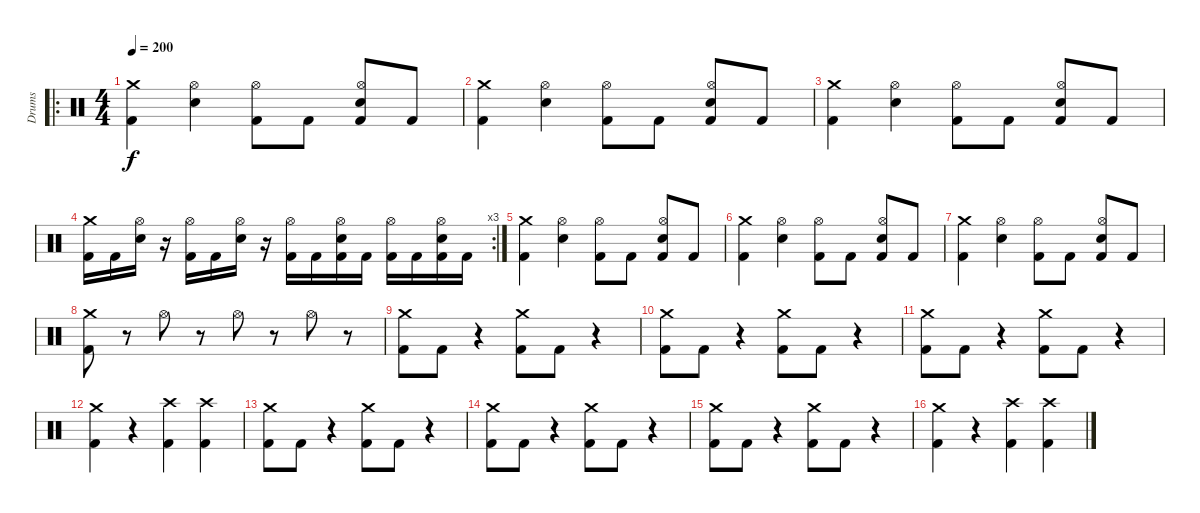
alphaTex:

\track ("Drums" "Drums") {instrument percussion}
\staff {score}
\articulation defaults
\ro
\ts (4 4)
\tempo 200
\clef neutral
\ks c
("Crash medium (hit)" "Kick (hit) 2").4{dy f} ("Hi-Hat (open)" "Electric Snare (hit)").4 ("Hi-Hat (open)" "Kick (hit) 2").8 "Kick (hit) 2".8 ("Hi-Hat (open)" "Electric Snare (hit)" "Kick (hit) 2").8 "Kick (hit) 2".8 |
("Crash medium (hit)" "Kick (hit) 2").4 ("Hi-Hat (open)" "Electric Snare (hit)").4 ("Hi-Hat (open)" "Kick (hit) 2").8 "Kick (hit) 2".8 ("Hi-Hat (open)" "Electric Snare (hit)" "Kick (hit) 2").8 "Kick (hit) 2".8 |
("Crash medium (hit)" "Kick (hit) 2").4 ("Hi-Hat (open)" "Electric Snare (hit)").4 ("Hi-Hat (open)" "Kick (hit) 2").8 "Kick (hit) 2".8 ("Hi-Hat (open)" "Electric Snare (hit)" "Kick (hit) 2").8 "Kick (hit) 2".8 |
\rc 3
("Crash medium (hit)" "Kick (hit) 2").16 "Kick (hit) 2".16 ("Hi-Hat (open)" "Electric Snare (hit)").16 r.16 ("Hi-Hat (open)" "Kick (hit) 2").16 "Kick (hit) 2".16 ("Hi-Hat (open)" "Electric Snare (hit)").16 r.16 ("Hi-Hat (open)" "Kick (hit) 2").16 "Kick (hit) 2".16 ("Hi-Hat (open)" "Electric Snare (hit)" "Kick (hit) 2").16 "Kick (hit) 2".16 ("Hi-Hat (open)" "Kick (hit) 2").16 "Kick (hit) 2".16 ("Hi-Hat (open)" "Electric Snare (hit)" "Kick (hit) 2").16 "Kick (hit) 2".16 |
("Crash medium (hit)" "Kick (hit) 2").4 ("Hi-Hat (open)" "Electric Snare (hit)").4 ("Hi-Hat (open)" "Kick (hit) 2").8 "Kick (hit) 2".8 ("Hi-Hat (open)" "Electric Snare (hit)" "Kick (hit) 2").8 "Kick (hit) 2".8 |
("Crash medium (hit)" "Kick (hit) 2").4 ("Hi-Hat (open)" "Electric Snare (hit)").4 ("Hi-Hat (open)" "Kick (hit) 2").8 "Kick (hit) 2".8 ("Hi-Hat (open)" "Electric Snare (hit)" "Kick (hit) 2").8 "Kick (hit) 2".8 |
("Crash medium (hit)" "Kick (hit) 2").4 ("Hi-Hat (open)" "Electric Snare (hit)").4 ("Hi-Hat (open)" "Kick (hit) 2").8 "Kick (hit) 2".8 ("Hi-Hat (open)" "Electric Snare (hit)" "Kick (hit) 2").8 "Kick (hit) 2".8 |
("Crash medium (hit)" "Kick (hit) 2").8 r.8 "Hi-Hat (open)".8 r.8 "Hi-Hat (open)".8 r.8 "Hi-Hat (open)".8 r.8 |
("Crash medium (hit)" "Kick (hit) 2").8 "Kick (hit) 2".8 r.4 ("Crash medium (hit)" "Kick (hit) 2").8 "Kick (hit) 2".8 r.4 |
("Crash medium (hit)" "Kick (hit) 2").8 "Kick (hit) 2".8 r.4 ("Crash medium (hit)" "Kick (hit) 2").8 "Kick (hit) 2".8 r.4 |
("Crash medium (hit)" "Kick (hit) 2").8 "Kick (hit) 2".8 r.4 ("Crash medium (hit)" "Kick (hit) 2").8 "Kick (hit) 2".8 r.4 |
("Crash medium (hit)" "Kick (hit) 2").4 r.4 ("Crash high (hit)" "Kick (hit) 2").4 ("Crash high (hit)" "Kick (hit) 2").4 |
("Crash medium (hit)" "Kick (hit) 2").8 "Kick (hit) 2".8 r.4 ("Crash medium (hit)" "Kick (hit) 2").8 "Kick (hit) 2".8 r.4 |
("Crash medium (hit)" "Kick (hit) 2").8 "Kick (hit) 2".8 r.4 ("Crash medium (hit)" "Kick (hit) 2").8 "Kick (hit) 2".8 r.4 |
("Crash medium (hit)" "Kick (hit) 2").8 "Kick (hit) 2".8 r.4 ("Crash medium (hit)" "Kick (hit) 2").8 "Kick (hit) 2".8 r.4 |
("Crash medium (hit)" "Kick (hit) 2").4 r.4 ("Crash high (hit)" "Kick (hit) 2").4 ("Crash high (hit)" "Kick (hit) 2").4
